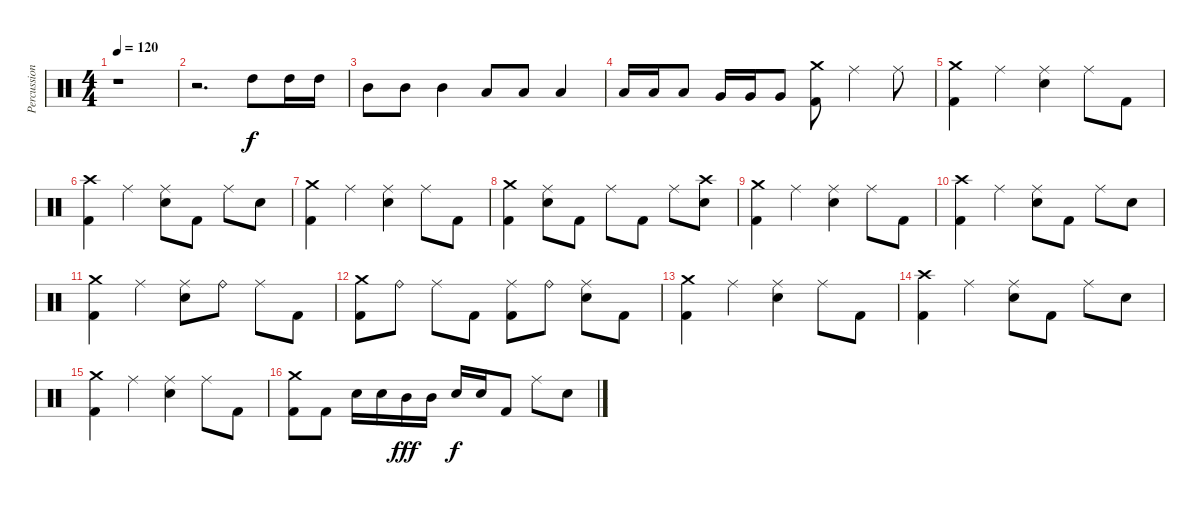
\track ("Percussion" "Percussion") {instrument percussion}
\staff {score}
\articulation defaults
\ts (4 4)
\tempo 120
\clef neutral
\ks c
r.1{dy f} |
r.2{d} "High Tom (hit)".8 "High Tom (hit)".16 "High Tom (hit)".16 |
"Mid Tom (hit)".8 "Mid Tom (hit)".8 "Mid Tom (hit)".4 "Low Tom (hit)".8 "Low Tom (hit)".8 "Low Tom (hit)".4 |
"Low Tom (hit)".16 "Low Tom (hit)".16 "Low Tom (hit)".8 "Very Low Tom (hit)".16 "Very Low Tom (hit)".16 "Very Low Tom (hit)".8 ("Crash medium (hit)" "Kick (hit) 2").8 "Ride (middle)".4 "Ride (middle)".8 |
("Crash medium (hit)" "Kick (hit) 2").4 "Ride (middle)".4 ("Ride (middle)" "Snare (hit) 2").4 "Ride (middle)".8 "Kick (hit) 2".8 |
("Crash high (hit)" "Kick (hit) 2").4 "Ride (middle)".4 ("Ride (middle)" "Snare (hit) 2").8 "Kick (hit) 2".8 "Ride (middle)".8 "Snare (hit) 2".8 |
("Crash medium (hit)" "Kick (hit) 2").4 "Ride (middle)".4 ("Ride (middle)" "Snare (hit) 2").4 "Ride (middle)".8 "Kick (hit) 2".8 |
("Crash medium (hit)" "Kick (hit) 2").4 ("Ride (middle)" "Snare (hit) 2").8 "Kick (hit) 2".8 "Ride (middle)".8 "Kick (hit) 2".8 "Ride (middle)".8 ("Crash high (hit)" "Snare (hit) 2").8 |
("Crash medium (hit)" "Kick (hit) 2").4 "Ride (middle)".4 ("Ride (middle)" "Snare (hit) 2").4 "Ride (middle)".8 "Kick (hit) 2".8 |
("Crash high (hit)" "Kick (hit) 2").4 "Ride (middle)".4 ("Ride (middle)" "Snare (hit) 2").8 "Kick (hit) 2".8 "Ride (middle)".8 "Snare (hit) 2".8 |
("Crash medium (hit)" "Kick (hit) 2").4 "Ride (middle)".4 ("Ride (middle)" "Snare (hit) 2").8 "Ride (bell)".8 "Ride (middle)".8 "Kick (hit) 2".8 |
("Crash medium (hit)" "Kick (hit) 2").8 "Ride (bell)".8 "Ride (middle)".8 "Kick (hit) 2".8 ("Ride (middle)" "Kick (hit) 2").8 "Ride (bell)".8 ("Ride (middle)" "Snare (hit) 2").8 "Kick (hit) 2".8 |
("Crash medium (hit)" "Kick (hit) 2").4 "Ride (middle)".4 ("Ride (middle)" "Snare (hit) 2").4 "Ride (middle)".8 "Kick (hit) 2".8 |
("Crash high (hit)" "Kick (hit) 2").4 "Ride (middle)".4 ("Ride (middle)" "Snare (hit) 2").8 "Kick (hit) 2".8 "Ride (middle)".8 "Snare (hit) 2".8 |
("Crash medium (hit)" "Kick (hit) 2").4 "Ride (middle)".4 ("Ride (middle)" "Snare (hit) 2").4 "Ride (middle)".8 "Kick (hit) 2".8 |
("Crash medium (hit)" "Kick (hit) 2").8 "Kick (hit) 2".8 "Snare (hit) 2".16 "Snare (hit) 2".16 "Mid Tom (hit)".16{dy fff} "Mid Tom (hit)".16 "Snare (hit) 2".16{dy f} "Snare (hit) 2".16 "Kick (hit) 2".8 "Ride (middle)".8 "Snare (hit) 2".8
